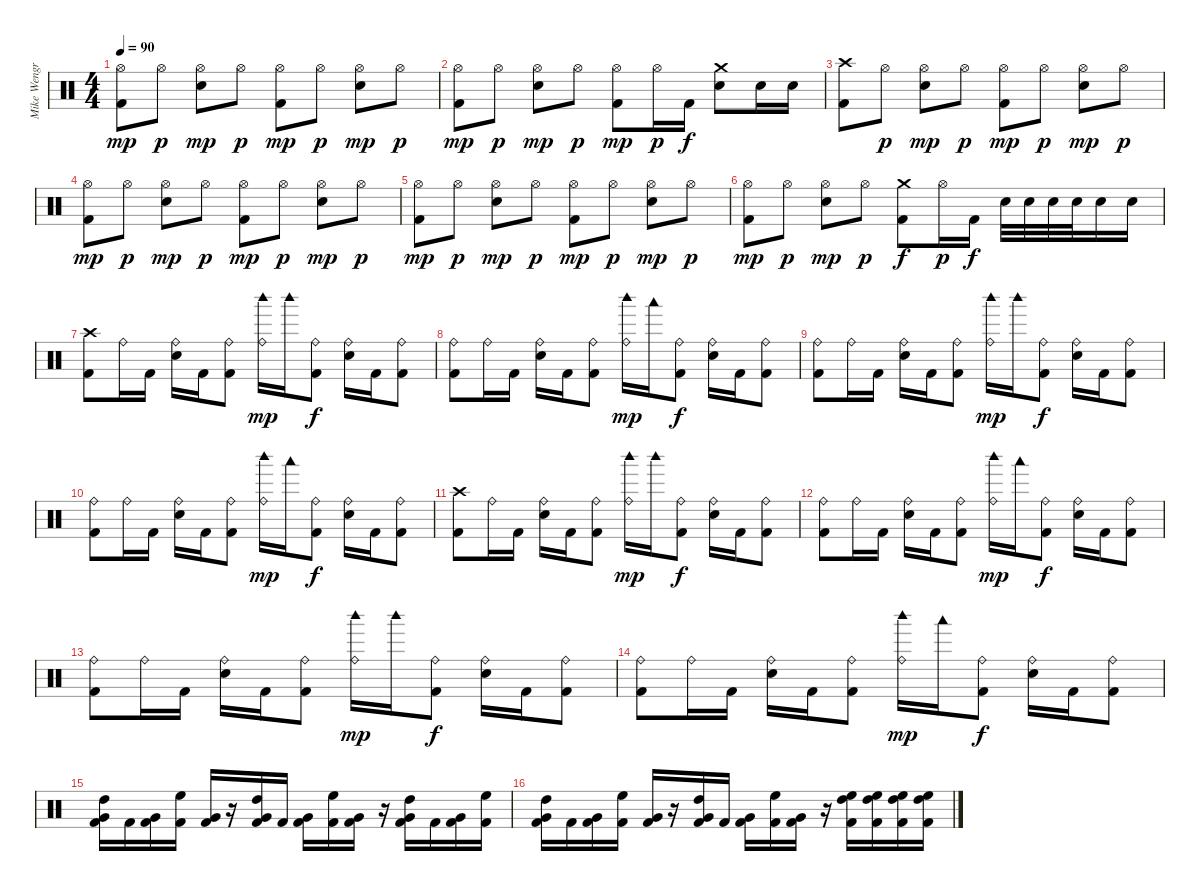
\track ("Mike Wengren - Drums" "Mike Wengr") {instrument percussion}
\staff {score}
\articulation defaults
\ts (4 4)
\tempo 90
\clef neutral
\ks c
("Hi-Hat (open)" "Kick (hit) 2").8{dy mp} "Hi-Hat (open)".8{dy p} ("Hi-Hat (open)" "Electric Snare (hit)").8{dy mp} "Hi-Hat (open)".8{dy p} ("Hi-Hat (open)" "Kick (hit) 2").8{dy mp} "Hi-Hat (open)".8{dy p} ("Hi-Hat (open)" "Electric Snare (hit)").8{dy mp} "Hi-Hat (open)".8{dy p} |
("Hi-Hat (open)" "Kick (hit) 2").8{dy mp} "Hi-Hat (open)".8{dy p} ("Hi-Hat (open)" "Electric Snare (hit)").8{dy mp} "Hi-Hat (open)".8{dy p} ("Hi-Hat (open)" "Kick (hit) 2").8{dy mp} "Hi-Hat (open)".16{dy p} "Kick (hit) 2".16{dy f} ("Crash medium (hit)" "Electric Snare (hit)").8 "Electric Snare (hit)".16 "Electric Snare (hit)".16 |
("Crash high (hit)" "Kick (hit) 2").8 "Hi-Hat (open)".8{dy p} ("Hi-Hat (open)" "Electric Snare (hit)").8{dy mp} "Hi-Hat (open)".8{dy p} ("Hi-Hat (open)" "Kick (hit) 2").8{dy mp} "Hi-Hat (open)".8{dy p} ("Hi-Hat (open)" "Electric Snare (hit)").8{dy mp} "Hi-Hat (open)".8{dy p} |
("Hi-Hat (open)" "Kick (hit) 2").8{dy mp} "Hi-Hat (open)".8{dy p} ("Hi-Hat (open)" "Electric Snare (hit)").8{dy mp} "Hi-Hat (open)".8{dy p} ("Hi-Hat (open)" "Kick (hit) 2").8{dy mp} "Hi-Hat (open)".8{dy p} ("Hi-Hat (open)" "Electric Snare (hit)").8{dy mp} "Hi-Hat (open)".8{dy p} |
("Hi-Hat (open)" "Kick (hit) 2").8{dy mp} "Hi-Hat (open)".8{dy p} ("Hi-Hat (open)" "Electric Snare (hit)").8{dy mp} "Hi-Hat (open)".8{dy p} ("Hi-Hat (open)" "Kick (hit) 2").8{dy mp} "Hi-Hat (open)".8{dy p} ("Hi-Hat (open)" "Electric Snare (hit)").8{dy mp} "Hi-Hat (open)".8{dy p} |
("Hi-Hat (open)" "Kick (hit) 2").8{dy mp} "Hi-Hat (open)".8{dy p} ("Hi-Hat (open)" "Electric Snare (hit)").8{dy mp} "Hi-Hat (open)".8{dy p} ("Crash medium (hit)" "Kick (hit) 2").8{dy f} "Hi-Hat (open)".16{dy p} "Kick (hit) 2".16{dy f} "Electric Snare (hit)".32 "Electric Snare (hit)".32 "Electric Snare (hit)".32 "Electric Snare (hit)".32 "Electric Snare (hit)".16 "Electric Snare (hit)".16 |
("Crash high (hit)" "Kick (hit) 2").8 "Ride (bell)".16 "Kick (hit) 2".16 ("Ride (bell)" "Electric Snare (hit)").16 "Kick (hit) 2".16 ("Ride (bell)" "Kick (hit) 2").8 ("Woodblock high (hit)" "Ride (bell)").16{dy mp} "Woodblock high (hit)".16 ("Ride (bell)" "Kick (hit) 2").8{dy f} ("Ride (bell)" "Electric Snare (hit)").16 "Kick (hit) 2".16 ("Ride (bell)" "Kick (hit) 2").8 |
("Ride (bell)" "Kick (hit) 2").8 "Ride (bell)".16 "Kick (hit) 2".16 ("Ride (bell)" "Electric Snare (hit)").16 "Kick (hit) 2".16 ("Ride (bell)" "Kick (hit) 2").8 ("Woodblock high (hit)" "Ride (bell)").16{dy mp} "Woodblock low (hit)".16 ("Ride (bell)" "Kick (hit) 2").8{dy f} ("Ride (bell)" "Electric Snare (hit)").16 "Kick (hit) 2".16 ("Ride (bell)" "Kick (hit) 2").8 |
("Ride (bell)" "Kick (hit) 2").8 "Ride (bell)".16 "Kick (hit) 2".16 ("Ride (bell)" "Electric Snare (hit)").16 "Kick (hit) 2".16 ("Ride (bell)" "Kick (hit) 2").8 ("Woodblock high (hit)" "Ride (bell)").16{dy mp} "Woodblock high (hit)".16 ("Ride (bell)" "Kick (hit) 2").8{dy f} ("Ride (bell)" "Electric Snare (hit)").16 "Kick (hit) 2".16 ("Ride (bell)" "Kick (hit) 2").8 |
("Ride (bell)" "Kick (hit) 2").8 "Ride (bell)".16 "Kick (hit) 2".16 ("Ride (bell)" "Electric Snare (hit)").16 "Kick (hit) 2".16 ("Ride (bell)" "Kick (hit) 2").8 ("Woodblock high (hit)" "Ride (bell)").16{dy mp} "Woodblock low (hit)".16 ("Ride (bell)" "Kick (hit) 2").8{dy f} ("Ride (bell)" "Electric Snare (hit)").16 "Kick (hit) 2".16 ("Ride (bell)" "Kick (hit) 2").8 |
("Crash high (hit)" "Kick (hit) 2").8 "Ride (bell)".16 "Kick (hit) 2".16 ("Ride (bell)" "Electric Snare (hit)").16 "Kick (hit) 2".16 ("Ride (bell)" "Kick (hit) 2").8 ("Woodblock high (hit)" "Ride (bell)").16{dy mp} "Woodblock high (hit)".16 ("Ride (bell)" "Kick (hit) 2").8{dy f} ("Ride (bell)" "Electric Snare (hit)").16 "Kick (hit) 2".16 ("Ride (bell)" "Kick (hit) 2").8 |
("Ride (bell)" "Kick (hit) 2").8 "Ride (bell)".16 "Kick (hit) 2".16 ("Ride (bell)" "Electric Snare (hit)").16 "Kick (hit) 2".16 ("Ride (bell)" "Kick (hit) 2").8 ("Woodblock high (hit)" "Ride (bell)").16{dy mp} "Woodblock low (hit)".16 ("Ride (bell)" "Kick (hit) 2").8{dy f} ("Ride (bell)" "Electric Snare (hit)").16 "Kick (hit) 2".16 ("Ride (bell)" "Kick (hit) 2").8 |
("Ride (bell)" "Kick (hit) 2").8 "Ride (bell)".16 "Kick (hit) 2".16 ("Ride (bell)" "Electric Snare (hit)").16 "Kick (hit) 2".16 ("Ride (bell)" "Kick (hit) 2").8 ("Woodblock high (hit)" "Ride (bell)").16{dy mp} "Woodblock high (hit)".16 ("Ride (bell)" "Kick (hit) 2").8{dy f} ("Ride (bell)" "Electric Snare (hit)").16 "Kick (hit) 2".16 ("Ride (bell)" "Kick (hit) 2").8 |
("Ride (bell)" "Kick (hit) 2").8 "Ride (bell)".16 "Kick (hit) 2".16 ("Ride (bell)" "Electric Snare (hit)").16 "Kick (hit) 2".16 ("Ride (bell)" "Kick (hit) 2").8 ("Woodblock high (hit)" "Ride (bell)").16{dy mp} "Woodblock low (hit)".16 ("Ride (bell)" "Kick (hit) 2").8{dy f} ("Ride (bell)" "Electric Snare (hit)").16 "Kick (hit) 2".16 ("Ride (bell)" "Kick (hit) 2").8 |
("Very Low Tom (hit)" "High Tom (hit)" "Kick (hit) 2").16 "Kick (hit) 2".16 ("Very Low Tom (hit)" "Kick (hit) 2").16 ("High Floor Tom (hit)" "Kick (hit) 2").16 ("Very Low Tom (hit)" "Kick (hit) 2").16 r.16 ("Very Low Tom (hit)" "High Tom (hit)" "Kick (hit) 2").16 "Kick (hit) 2".16 ("Very Low Tom (hit)" "Kick (hit) 2").16 ("High Floor Tom (hit)" "Kick (hit) 2").16 ("Very Low Tom (hit)" "Kick (hit) 2").16 r.16 ("Very Low Tom (hit)" "High Tom (hit)" "Kick (hit) 2").16 "Kick (hit) 2".16 ("Very Low Tom (hit)" "Kick (hit) 2").16 ("High Floor Tom (hit)" "Kick (hit) 2").16 |
("Very Low Tom (hit)" "High Tom (hit)" "Kick (hit) 2").16 "Kick (hit) 2".16 ("Very Low Tom (hit)" "Kick (hit) 2").16 ("High Floor Tom (hit)" "Kick (hit) 2").16 ("Very Low Tom (hit)" "Kick (hit) 2").16 r.16 ("Very Low Tom (hit)" "High Tom (hit)" "Kick (hit) 2").16 "Kick (hit) 2".16 ("Very Low Tom (hit)" "Kick (hit) 2").16 ("High Floor Tom (hit)" "Kick (hit) 2").16 ("Very Low Tom (hit)" "Kick (hit) 2").16 r.16 ("High Tom (hit)" "High Floor Tom (hit)" "Kick (hit) 2").16 ("High Tom (hit)" "High Floor Tom (hit)" "Kick (hit) 2").16 ("High Tom (hit)" "High Floor Tom (hit)" "Kick (hit) 2").16 ("High Tom (hit)" "High Floor Tom (hit)" "Kick (hit) 2").16
